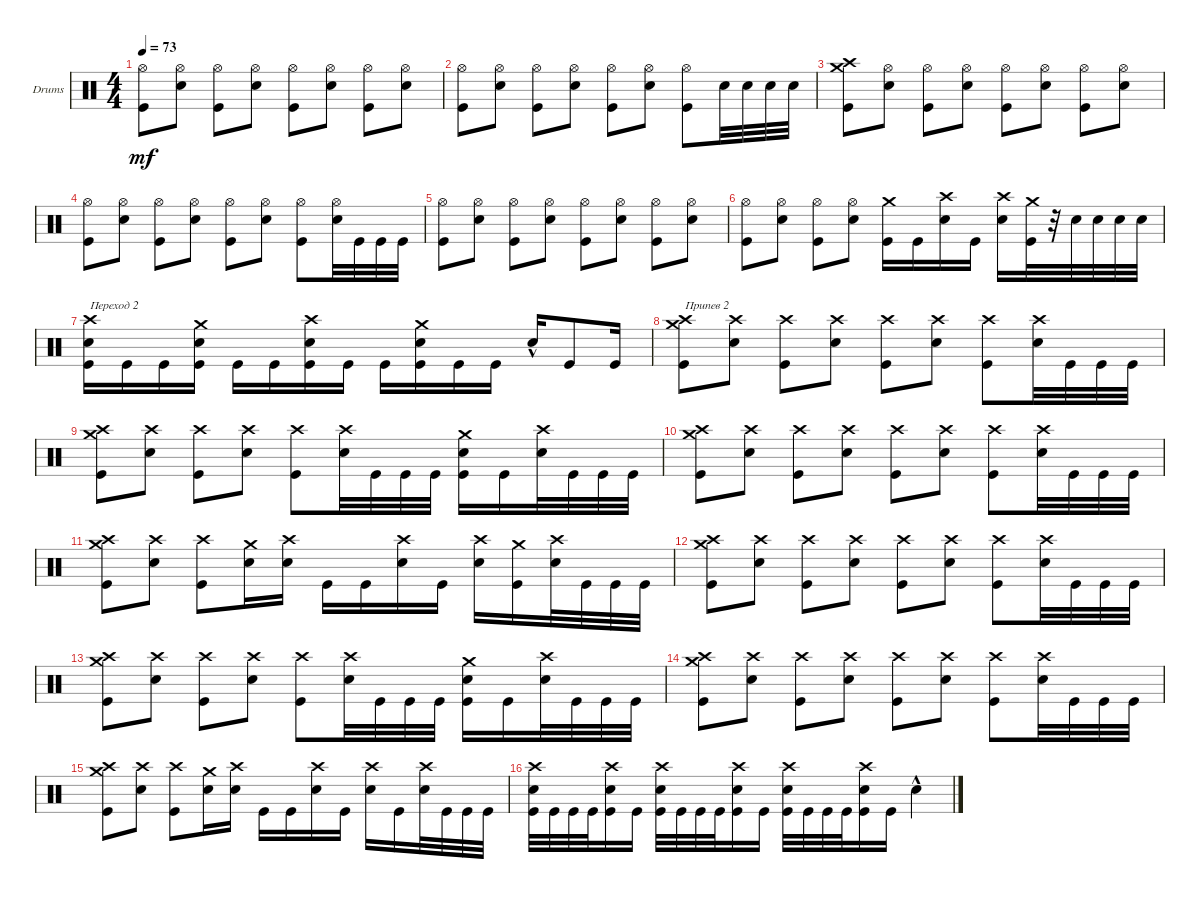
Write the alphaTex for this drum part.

\defaultSystemsLayout 4
\bracketExtendMode groupsimilarinstruments
\firstSystemTrackNameOrientation horizontal
\otherSystemsTrackNameOrientation horizontal
\track ("Drumkit" "Drums") {instrument percussion}
\staff {score}
\articulation defaults
\ts (4 4)
\tempo 73
\clef neutral
\ks c
("Hi-Hat (open)" "Kick (hit)").8{dy mf} ("Hi-Hat (open)" "Snare (hit) 2").8 ("Hi-Hat (open)" "Kick (hit)").8 ("Hi-Hat (open)" "Snare (hit) 2").8 ("Hi-Hat (open)" "Kick (hit)").8 ("Hi-Hat (open)" "Snare (hit) 2").8 ("Hi-Hat (open)" "Kick (hit)").8 ("Hi-Hat (open)" "Snare (hit) 2").8 |
("Kick (hit)" "Hi-Hat (open)").8 ("Hi-Hat (open)" "Snare (hit) 2").8 ("Hi-Hat (open)" "Kick (hit)").8 ("Hi-Hat (open)" "Snare (hit) 2").8 ("Hi-Hat (open)" "Kick (hit)").8 ("Hi-Hat (open)" "Snare (hit) 2").8 ("Hi-Hat (open)" "Kick (hit)").8 "Snare (hit) 2".32 "Snare (hit) 2".32 "Snare (hit) 2".32 "Snare (hit) 2".32 |
("Kick (hit)" "Crash high (hit)" "Crash medium (hit)").8 ("Hi-Hat (open)" "Snare (hit) 2").8 ("Hi-Hat (open)" "Kick (hit)").8 ("Hi-Hat (open)" "Snare (hit) 2").8 ("Hi-Hat (open)" "Kick (hit)").8 ("Hi-Hat (open)" "Snare (hit) 2").8 ("Hi-Hat (open)" "Kick (hit)").8 ("Hi-Hat (open)" "Snare (hit) 2").8 |
("Kick (hit)" "Hi-Hat (open)").8 ("Hi-Hat (open)" "Snare (hit) 2").8 ("Hi-Hat (open)" "Kick (hit)").8 ("Hi-Hat (open)" "Snare (hit) 2").8 ("Hi-Hat (open)" "Kick (hit)").8 ("Hi-Hat (open)" "Snare (hit) 2").8 ("Hi-Hat (open)" "Kick (hit)").8 ("Hi-Hat (open)" "Snare (hit) 2").32 "Kick (hit)".32 "Kick (hit)".32 "Kick (hit)".32 |
("Hi-Hat (open)" "Kick (hit)").8 ("Hi-Hat (open)" "Snare (hit) 2").8 ("Hi-Hat (open)" "Kick (hit)").8 ("Hi-Hat (open)" "Snare (hit) 2").8 ("Hi-Hat (open)" "Kick (hit)").8 ("Hi-Hat (open)" "Snare (hit) 2").8 ("Hi-Hat (open)" "Kick (hit)").8 ("Hi-Hat (open)" "Snare (hit) 2").8 |
("Kick (hit)" "Hi-Hat (open)").8 ("Hi-Hat (open)" "Snare (hit) 2").8 ("Hi-Hat (open)" "Kick (hit)").8 ("Hi-Hat (open)" "Snare (hit) 2").8 ("Kick (hit)" "Crash medium (hit)").16 "Kick (hit)".16 ("Snare (hit) 2" "Crash high (hit)").16 "Kick (hit)".16 ("Snare (hit) 2" "Crash high (hit)").16 ("Kick (hit)" "Crash medium (hit)").32 r.32 "Snare (hit) 2".32 "Snare (hit) 2".32 "Snare (hit) 2".32 "Snare (hit) 2".32 |
("Kick (hit)" "Snare (hit) 2" "Crash high (hit)").16{txt "Переход 2"} "Kick (hit)".16 "Kick (hit)".16 ("Kick (hit)" "Snare (hit) 2" "Crash medium (hit)").16 "Kick (hit)".16 "Kick (hit)".16 ("Kick (hit)" "Crash high (hit)" "Snare (hit) 2").16 "Kick (hit)".16 "Kick (hit)".16 ("Kick (hit)" "Snare (hit) 2" "Crash medium (hit)").16 "Kick (hit)".16 "Kick (hit)".16 "Snare (hit) 2"{hac}.16 "Kick (hit)".8 "Kick (hit)".16 |
("Crash high (hit)" "Kick (hit)" "Crash medium (hit)").8{txt "Припев 2"} ("Crash high (hit)" "Snare (hit) 2").8 ("Crash high (hit)" "Kick (hit)").8 ("Crash high (hit)" "Snare (hit) 2").8 ("Crash high (hit)" "Kick (hit)").8 ("Crash high (hit)" "Snare (hit) 2").8 ("Crash high (hit)" "Kick (hit)").8 ("Crash high (hit)" "Snare (hit) 2").32 "Kick (hit)".32 "Kick (hit)".32 "Kick (hit)".32 |
("Crash high (hit)" "Kick (hit)" "Crash medium (hit)").8 ("Crash high (hit)" "Snare (hit) 2").8 ("Crash high (hit)" "Kick (hit)").8 ("Crash high (hit)" "Snare (hit) 2").8 ("Crash high (hit)" "Kick (hit)").8 ("Crash high (hit)" "Snare (hit) 2").32 "Kick (hit)".32 "Kick (hit)".32 "Kick (hit)".32 ("Kick (hit)" "Crash medium (hit)" "Snare (hit) 2").16 "Kick (hit)".16 ("Crash high (hit)" "Snare (hit) 2").32 "Kick (hit)".32 "Kick (hit)".32 "Kick (hit)".32 |
("Crash high (hit)" "Kick (hit)" "Crash medium (hit)").8 ("Crash high (hit)" "Snare (hit) 2").8 ("Crash high (hit)" "Kick (hit)").8 ("Crash high (hit)" "Snare (hit) 2").8 ("Crash high (hit)" "Kick (hit)").8 ("Crash high (hit)" "Snare (hit) 2").8 ("Crash high (hit)" "Kick (hit)").8 ("Crash high (hit)" "Snare (hit) 2").32 "Kick (hit)".32 "Kick (hit)".32 "Kick (hit)".32 |
("Crash high (hit)" "Kick (hit)" "Crash medium (hit)").8 ("Crash high (hit)" "Snare (hit) 2").8 ("Crash high (hit)" "Kick (hit)").8 ("Snare (hit) 2" "Crash medium (hit)").16 ("Crash high (hit)" "Snare (hit) 2").16 "Kick (hit)".16 "Kick (hit)".16 ("Snare (hit) 2" "Crash high (hit)").16 "Kick (hit)".16 ("Crash high (hit)" "Snare (hit) 2").16 ("Kick (hit)" "Crash medium (hit)").16 ("Snare (hit) 2" "Crash high (hit)").32 "Kick (hit)".32 "Kick (hit)".32 "Kick (hit)".32 |
("Crash high (hit)" "Kick (hit)" "Crash medium (hit)").8 ("Crash high (hit)" "Snare (hit) 2").8 ("Crash high (hit)" "Kick (hit)").8 ("Crash high (hit)" "Snare (hit) 2").8 ("Crash high (hit)" "Kick (hit)").8 ("Crash high (hit)" "Snare (hit) 2").8 ("Crash high (hit)" "Kick (hit)").8 ("Crash high (hit)" "Snare (hit) 2").32 "Kick (hit)".32 "Kick (hit)".32 "Kick (hit)".32 |
("Crash high (hit)" "Kick (hit)" "Crash medium (hit)").8 ("Crash high (hit)" "Snare (hit) 2").8 ("Crash high (hit)" "Kick (hit)").8 ("Crash high (hit)" "Snare (hit) 2").8 ("Crash high (hit)" "Kick (hit)").8 ("Crash high (hit)" "Snare (hit) 2").32 "Kick (hit)".32 "Kick (hit)".32 "Kick (hit)".32 ("Kick (hit)" "Crash medium (hit)" "Snare (hit) 2").16 "Kick (hit)".16 ("Crash high (hit)" "Snare (hit) 2").32 "Kick (hit)".32 "Kick (hit)".32 "Kick (hit)".32 |
("Crash high (hit)" "Kick (hit)" "Crash medium (hit)").8 ("Crash high (hit)" "Snare (hit) 2").8 ("Crash high (hit)" "Kick (hit)").8 ("Crash high (hit)" "Snare (hit) 2").8 ("Crash high (hit)" "Kick (hit)").8 ("Crash high (hit)" "Snare (hit) 2").8 ("Crash high (hit)" "Kick (hit)").8 ("Crash high (hit)" "Snare (hit) 2").32 "Kick (hit)".32 "Kick (hit)".32 "Kick (hit)".32 |
("Crash high (hit)" "Kick (hit)" "Crash medium (hit)").8 ("Crash high (hit)" "Snare (hit) 2").8 ("Crash high (hit)" "Kick (hit)").8 ("Snare (hit) 2" "Crash medium (hit)").16 ("Crash high (hit)" "Snare (hit) 2").16 "Kick (hit)".16 "Kick (hit)".16 ("Snare (hit) 2" "Crash high (hit)").16 "Kick (hit)".16 ("Crash high (hit)" "Snare (hit) 2").16 "Kick (hit)".16 ("Snare (hit) 2" "Crash high (hit)").32 "Kick (hit)".32 "Kick (hit)".32 "Kick (hit)".32 |
("Kick (hit)" "Snare (hit) 2" "Crash high (hit)").32 "Kick (hit)".32 "Kick (hit)".32 "Kick (hit)".32 ("Kick (hit)" "Crash high (hit)" "Snare (hit) 2").16 "Kick (hit)".16 ("Kick (hit)" "Crash high (hit)" "Snare (hit) 2").32 "Kick (hit)".32 "Kick (hit)".32 "Kick (hit)".32 ("Kick (hit)" "Crash high (hit)" "Snare (hit) 2").16 "Kick (hit)".16 ("Kick (hit)" "Snare (hit) 2" "Crash high (hit)").32 "Kick (hit)".32 "Kick (hit)".32 "Kick (hit)".32 ("Kick (hit)" "Crash high (hit)" "Snare (hit) 2").16 "Kick (hit)".16 "Snare (hit) 2"{hac}.4
